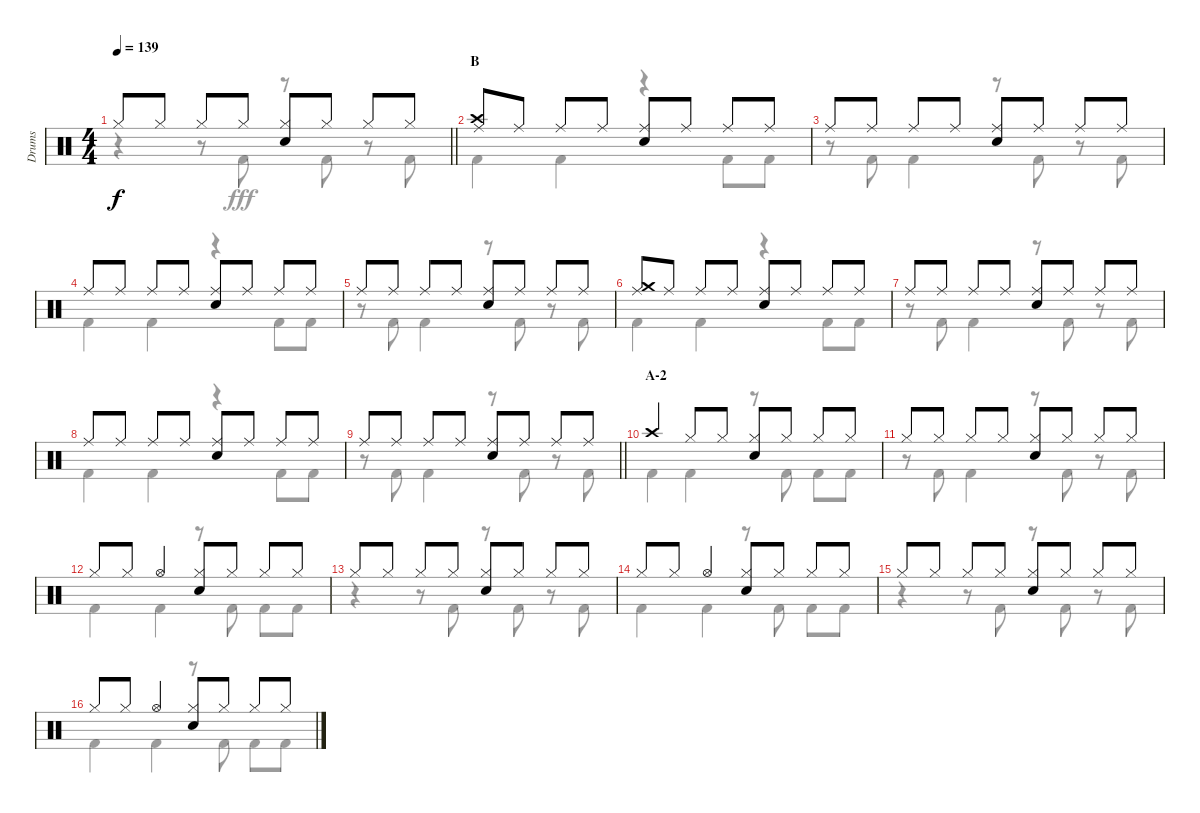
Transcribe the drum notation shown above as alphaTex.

\track ("Drums" "Drums") {instrument percussion}
\staff {score}
\articulation defaults
\voice
\ts (4 4)
\tempo 139
\clef neutral
\barLineRight lightlight
\ks aminor "Hi-Hat (closed)".8{dy f} "Hi-Hat (closed)".8 "Hi-Hat (closed)".8 "Hi-Hat (closed)".8
("Hi-Hat (closed)" "Snare (hit) 2").8 "Hi-Hat (closed)".8 "Hi-Hat (closed)".8 "Hi-Hat (closed)".8 |
\section ("" "B")
("Crash high (hit)" "Ride (middle)").8 "Ride (middle)".8 "Ride (middle)".8 "Ride (middle)".8 ("Ride (middle)" "Snare (hit) 2").8 "Ride (middle)".8 "Ride (middle)".8 "Ride (middle)".8 |
"Ride (middle)".8 "Ride (middle)".8 "Ride (middle)".8 "Ride (middle)".8 ("Ride (middle)" "Snare (hit) 2").8 "Ride (middle)".8 "Ride (middle)".8 "Ride (middle)".8 |
"Ride (middle)".8 "Ride (middle)".8 "Ride (middle)".8 "Ride (middle)".8 ("Ride (middle)" "Snare (hit) 2").8 "Ride (middle)".8 "Ride (middle)".8 "Ride (middle)".8 |
"Ride (middle)".8 "Ride (middle)".8 "Ride (middle)".8 "Ride (middle)".8 ("Ride (middle)" "Snare (hit) 2").8 "Ride (middle)".8 "Ride (middle)".8 "Ride (middle)".8 |
("Crash medium (hit)" "Ride (middle)").8 "Ride (middle)".8 "Ride (middle)".8 "Ride (middle)".8 ("Ride (middle)" "Snare (hit) 2").8 "Ride (middle)".8 "Ride (middle)".8 "Ride (middle)".8 |
"Ride (middle)".8 "Ride (middle)".8 "Ride (middle)".8 "Ride (middle)".8 ("Ride (middle)" "Snare (hit) 2").8 "Ride (middle)".8 "Ride (middle)".8 "Ride (middle)".8 |
"Ride (middle)".8 "Ride (middle)".8 "Ride (middle)".8 "Ride (middle)".8 ("Ride (middle)" "Snare (hit) 2").8 "Ride (middle)".8 "Ride (middle)".8 "Ride (middle)".8 |
\barLineRight lightlight "Ride (middle)".8 "Ride (middle)".8 "Ride (middle)".8 "Ride (middle)".8
("Ride (middle)" "Snare (hit) 2").8 "Ride (middle)".8 "Ride (middle)".8 "Ride (middle)".8 |
\section ("" "A-2")
"Crash high (hit)".4 "Hi-Hat (closed)".8 "Hi-Hat (closed)".8 ("Hi-Hat (closed)" "Snare (hit) 2").8 "Hi-Hat (closed)".8 "Hi-Hat (closed)".8 "Hi-Hat (closed)".8 |
"Hi-Hat (closed)".8 "Hi-Hat (closed)".8 "Hi-Hat (closed)".8 "Hi-Hat (closed)".8 ("Hi-Hat (closed)" "Snare (hit) 2").8 "Hi-Hat (closed)".8 "Hi-Hat (closed)".8 "Hi-Hat (closed)".8 |
"Hi-Hat (closed)".8 "Hi-Hat (closed)".8 "Hi-Hat (open)".4 ("Hi-Hat (closed)" "Snare (hit) 2").8 "Hi-Hat (closed)".8 "Hi-Hat (closed)".8 "Hi-Hat (closed)".8 |
"Hi-Hat (closed)".8 "Hi-Hat (closed)".8 "Hi-Hat (closed)".8 "Hi-Hat (closed)".8 ("Hi-Hat (closed)" "Snare (hit) 2").8 "Hi-Hat (closed)".8 "Hi-Hat (closed)".8 "Hi-Hat (closed)".8 |
"Hi-Hat (closed)".8 "Hi-Hat (closed)".8 "Hi-Hat (open)".4 ("Hi-Hat (closed)" "Snare (hit) 2").8 "Hi-Hat (closed)".8 "Hi-Hat (closed)".8 "Hi-Hat (closed)".8 |
"Hi-Hat (closed)".8 "Hi-Hat (closed)".8 "Hi-Hat (closed)".8 "Hi-Hat (closed)".8 ("Hi-Hat (closed)" "Snare (hit) 2").8 "Hi-Hat (closed)".8 "Hi-Hat (closed)".8 "Hi-Hat (closed)".8 |
"Hi-Hat (closed)".8 "Hi-Hat (closed)".8 "Hi-Hat (open)".4 ("Hi-Hat (closed)" "Snare (hit) 2").8 "Hi-Hat (closed)".8 "Hi-Hat (closed)".8 "Hi-Hat (closed)".8
\voice
\clef neutral
\ottava regular
\simile none
\barLineRight lightlight
\ks aminor
r.4{dy fff} r.8 "Kick (hit) 2".8 r.8 "Kick (hit) 2".8 r.8 "Kick (hit) 2".8 |
"Kick (hit) 2".4 "Kick (hit) 2".4 r.4 "Kick (hit) 2".8 "Kick (hit) 2".8 |
r.8 "Kick (hit) 2".8 "Kick (hit) 2".4 r.8 "Kick (hit) 2".8 r.8 "Kick (hit) 2".8 |
"Kick (hit) 2".4 "Kick (hit) 2".4 r.4 "Kick (hit) 2".8 "Kick (hit) 2".8 |
r.8 "Kick (hit) 2".8 "Kick (hit) 2".4 r.8 "Kick (hit) 2".8 r.8 "Kick (hit) 2".8 |
"Kick (hit) 2".4 "Kick (hit) 2".4 r.4 "Kick (hit) 2".8 "Kick (hit) 2".8 |
r.8 "Kick (hit) 2".8 "Kick (hit) 2".4 r.8 "Kick (hit) 2".8 r.8 "Kick (hit) 2".8 |
"Kick (hit) 2".4 "Kick (hit) 2".4 r.4 "Kick (hit) 2".8 "Kick (hit) 2".8 |
\barLineRight lightlight
r.8 "Kick (hit) 2".8 "Kick (hit) 2".4 r.8 "Kick (hit) 2".8 r.8 "Kick (hit) 2".8 |
"Kick (hit) 2".4 "Kick (hit) 2".4 r.8 "Kick (hit) 2".8 "Kick (hit) 2".8 "Kick (hit) 2".8 |
r.8 "Kick (hit) 2".8 "Kick (hit) 2".4 r.8 "Kick (hit) 2".8 r.8 "Kick (hit) 2".8 |
"Kick (hit) 2".4 "Kick (hit) 2".4 r.8 "Kick (hit) 2".8 "Kick (hit) 2".8 "Kick (hit) 2".8 |
r.4 r.8 "Kick (hit) 2".8 r.8 "Kick (hit) 2".8 r.8 "Kick (hit) 2".8 |
"Kick (hit) 2".4 "Kick (hit) 2".4 r.8 "Kick (hit) 2".8 "Kick (hit) 2".8 "Kick (hit) 2".8 |
r.4 r.8 "Kick (hit) 2".8 r.8 "Kick (hit) 2".8 r.8 "Kick (hit) 2".8 |
"Kick (hit) 2".4 "Kick (hit) 2".4 r.8 "Kick (hit) 2".8 "Kick (hit) 2".8 "Kick (hit) 2".8
